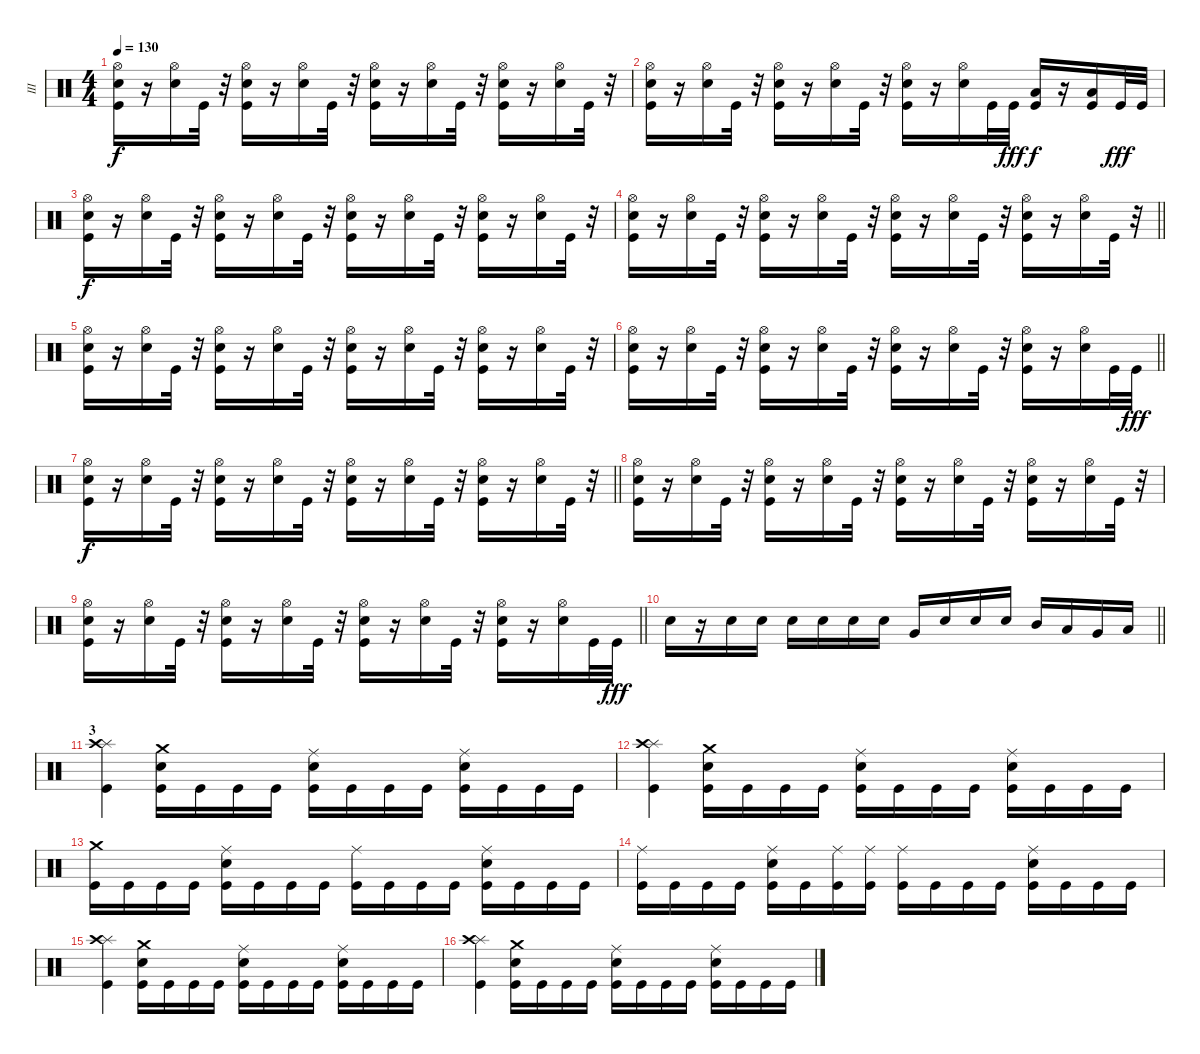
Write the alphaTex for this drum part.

\track ("III" "III") {instrument percussion}
\staff {score}
\articulation defaults
\ts (4 4)
\tempo 130
\clef neutral
\ks c
("Hi-Hat (open)" "Kick (hit)" "Snare (hit) 2").16{dy f} r.16 ("Hi-Hat (open)" "Snare (hit) 2").16 "Kick (hit)".32 r.32 ("Hi-Hat (open)" "Kick (hit)" "Snare (hit) 2").16 r.16 ("Hi-Hat (open)" "Snare (hit) 2").16 "Kick (hit)".32 r.32 ("Hi-Hat (open)" "Kick (hit)" "Snare (hit) 2").16 r.16 ("Hi-Hat (open)" "Snare (hit) 2").16 "Kick (hit)".32 r.32 ("Hi-Hat (open)" "Kick (hit)" "Snare (hit) 2").16 r.16 ("Hi-Hat (open)" "Snare (hit) 2").16 "Kick (hit)".32 r.32 |
("Hi-Hat (open)" "Kick (hit)" "Snare (hit) 2").16 r.16 ("Hi-Hat (open)" "Snare (hit) 2").16 "Kick (hit)".32 r.32 ("Hi-Hat (open)" "Kick (hit)" "Snare (hit) 2").16 r.16 ("Hi-Hat (open)" "Snare (hit) 2").16 "Kick (hit)".32 r.32 ("Hi-Hat (open)" "Kick (hit)" "Snare (hit) 2").16 r.16 ("Hi-Hat (open)" "Snare (hit) 2").16 "Kick (hit)".32 "Kick (hit)".32{dy fff} ("Kick (hit)" "Low Tom (hit)").16{dy f} r.16 ("Kick (hit)" "Low Tom (hit)").16 "Kick (hit)".32{dy fff} "Kick (hit)".32 |
("Hi-Hat (open)" "Kick (hit)" "Snare (hit) 2").16{dy f} r.16 ("Hi-Hat (open)" "Snare (hit) 2").16 "Kick (hit)".32 r.32 ("Hi-Hat (open)" "Kick (hit)" "Snare (hit) 2").16 r.16 ("Hi-Hat (open)" "Snare (hit) 2").16 "Kick (hit)".32 r.32 ("Hi-Hat (open)" "Kick (hit)" "Snare (hit) 2").16 r.16 ("Hi-Hat (open)" "Snare (hit) 2").16 "Kick (hit)".32 r.32 ("Hi-Hat (open)" "Kick (hit)" "Snare (hit) 2").16 r.16 ("Hi-Hat (open)" "Snare (hit) 2").16 "Kick (hit)".32 r.32 |
\barLineRight lightlight
("Hi-Hat (open)" "Kick (hit)" "Snare (hit) 2").16 r.16 ("Hi-Hat (open)" "Snare (hit) 2").16 "Kick (hit)".32 r.32 ("Hi-Hat (open)" "Kick (hit)" "Snare (hit) 2").16 r.16 ("Hi-Hat (open)" "Snare (hit) 2").16 "Kick (hit)".32 r.32 ("Hi-Hat (open)" "Kick (hit)" "Snare (hit) 2").16 r.16 ("Hi-Hat (open)" "Snare (hit) 2").16 "Kick (hit)".32 r.32 ("Hi-Hat (open)" "Kick (hit)" "Snare (hit) 2").16 r.16 ("Hi-Hat (open)" "Snare (hit) 2").16 "Kick (hit)".32 r.32 |
("Hi-Hat (open)" "Kick (hit)" "Snare (hit) 2").16 r.16 ("Hi-Hat (open)" "Snare (hit) 2").16 "Kick (hit)".32 r.32 ("Hi-Hat (open)" "Kick (hit)" "Snare (hit) 2").16 r.16 ("Hi-Hat (open)" "Snare (hit) 2").16 "Kick (hit)".32 r.32 ("Hi-Hat (open)" "Kick (hit)" "Snare (hit) 2").16 r.16 ("Hi-Hat (open)" "Snare (hit) 2").16 "Kick (hit)".32 r.32 ("Hi-Hat (open)" "Kick (hit)" "Snare (hit) 2").16 r.16 ("Hi-Hat (open)" "Snare (hit) 2").16 "Kick (hit)".32 r.32 |
\barLineRight lightlight
("Hi-Hat (open)" "Kick (hit)" "Snare (hit) 2").16 r.16 ("Hi-Hat (open)" "Snare (hit) 2").16 "Kick (hit)".32 r.32 ("Hi-Hat (open)" "Kick (hit)" "Snare (hit) 2").16 r.16 ("Hi-Hat (open)" "Snare (hit) 2").16 "Kick (hit)".32 r.32 ("Hi-Hat (open)" "Kick (hit)" "Snare (hit) 2").16 r.16 ("Hi-Hat (open)" "Snare (hit) 2").16 "Kick (hit)".32 r.32 ("Hi-Hat (open)" "Kick (hit)" "Snare (hit) 2").16 r.16 ("Hi-Hat (open)" "Snare (hit) 2").16 "Kick (hit)".32 "Kick (hit)".32{dy fff} |
\barLineRight lightlight
("Hi-Hat (open)" "Kick (hit)" "Snare (hit) 2").16{dy f} r.16 ("Hi-Hat (open)" "Snare (hit) 2").16 "Kick (hit)".32 r.32 ("Hi-Hat (open)" "Kick (hit)" "Snare (hit) 2").16 r.16 ("Hi-Hat (open)" "Snare (hit) 2").16 "Kick (hit)".32 r.32 ("Hi-Hat (open)" "Kick (hit)" "Snare (hit) 2").16 r.16 ("Hi-Hat (open)" "Snare (hit) 2").16 "Kick (hit)".32 r.32 ("Hi-Hat (open)" "Kick (hit)" "Snare (hit) 2").16 r.16 ("Hi-Hat (open)" "Snare (hit) 2").16 "Kick (hit)".32 r.32 |
("Hi-Hat (open)" "Kick (hit)" "Snare (hit) 2").16 r.16 ("Hi-Hat (open)" "Snare (hit) 2").16 "Kick (hit)".32 r.32 ("Hi-Hat (open)" "Kick (hit)" "Snare (hit) 2").16 r.16 ("Hi-Hat (open)" "Snare (hit) 2").16 "Kick (hit)".32 r.32 ("Hi-Hat (open)" "Kick (hit)" "Snare (hit) 2").16 r.16 ("Hi-Hat (open)" "Snare (hit) 2").16 "Kick (hit)".32 r.32 ("Hi-Hat (open)" "Kick (hit)" "Snare (hit) 2").16 r.16 ("Hi-Hat (open)" "Snare (hit) 2").16 "Kick (hit)".32 r.32 |
\barLineRight lightlight
("Hi-Hat (open)" "Kick (hit)" "Snare (hit) 2").16 r.16 ("Hi-Hat (open)" "Snare (hit) 2").16 "Kick (hit)".32 r.32 ("Hi-Hat (open)" "Kick (hit)" "Snare (hit) 2").16 r.16 ("Hi-Hat (open)" "Snare (hit) 2").16 "Kick (hit)".32 r.32 ("Hi-Hat (open)" "Kick (hit)" "Snare (hit) 2").16 r.16 ("Hi-Hat (open)" "Snare (hit) 2").16 "Kick (hit)".32 r.32 ("Hi-Hat (open)" "Kick (hit)" "Snare (hit) 2").16 r.16 ("Hi-Hat (open)" "Snare (hit) 2").16 "Kick (hit)".32 "Kick (hit)".32{dy fff} |
\barLineRight lightlight "Snare (hit) 2".16
r.16 "Snare (hit) 2".16 "Snare (hit) 2".16 "Snare (hit) 2".16 "Snare (hit) 2".16 "Snare (hit) 2".16 "Snare (hit) 2".16 "Very Low Tom (hit)".16 "Snare (hit) 2".16 "Snare (hit) 2".16 "Snare (hit) 2".16 "Mid Tom (hit)".16 "Low Tom (hit)".16 "Very Low Tom (hit)".16 "Low Floor Tom (hit)".16 |
\section ("" "3")
("Splash (hit)" "Crash high (hit)" "Kick (hit)").4 ("Kick (hit)" "Snare (hit) 2" "Crash medium (hit)").16 "Kick (hit)".16 "Kick (hit)".16 "Kick (hit)".16 ("Snare (hit) 2" "Kick (hit)" "Ride (middle)").16 "Kick (hit)".16 "Kick (hit)".16 "Kick (hit)".16 ("Snare (hit) 2" "Kick (hit)" "Ride (middle)").16 "Kick (hit)".16 "Kick (hit)".16 "Kick (hit)".16 |
("Splash (hit)" "Crash high (hit)" "Kick (hit)").4 ("Kick (hit)" "Snare (hit) 2" "Crash medium (hit)").16 "Kick (hit)".16 "Kick (hit)".16 "Kick (hit)".16 ("Snare (hit) 2" "Kick (hit)" "Ride (middle)").16 "Kick (hit)".16 "Kick (hit)".16 "Kick (hit)".16 ("Snare (hit) 2" "Kick (hit)" "Ride (middle)").16 "Kick (hit)".16 "Kick (hit)".16 "Kick (hit)".16 |
("Kick (hit)" "Crash medium (hit)").16 "Kick (hit)".16 "Kick (hit)".16 "Kick (hit)".16 ("Snare (hit) 2" "Kick (hit)" "Ride (middle)").16 "Kick (hit)".16 "Kick (hit)".16 "Kick (hit)".16 ("Kick (hit)" "Ride (middle)").16 "Kick (hit)".16 "Kick (hit)".16 "Kick (hit)".16 ("Snare (hit) 2" "Kick (hit)" "Ride (middle)").16 "Kick (hit)".16 "Kick (hit)".16 "Kick (hit)".16 |
("Kick (hit)" "Ride (middle)").16 "Kick (hit)".16 "Kick (hit)".16 "Kick (hit)".16 ("Snare (hit) 2" "Kick (hit)" "Ride (middle)").16 "Kick (hit)".16 ("Ride (middle)" "Kick (hit)").16 ("Ride (middle)" "Kick (hit)").16 ("Kick (hit)" "Ride (middle)").16 "Kick (hit)".16 "Kick (hit)".16 "Kick (hit)".16 ("Snare (hit) 2" "Kick (hit)" "Ride (middle)").16 "Kick (hit)".16 "Kick (hit)".16 "Kick (hit)".16 |
("Splash (hit)" "Crash high (hit)" "Kick (hit)").4 ("Kick (hit)" "Snare (hit) 2" "Crash medium (hit)").16 "Kick (hit)".16 "Kick (hit)".16 "Kick (hit)".16 ("Snare (hit) 2" "Kick (hit)" "Ride (middle)").16 "Kick (hit)".16 "Kick (hit)".16 "Kick (hit)".16 ("Snare (hit) 2" "Kick (hit)" "Ride (middle)").16 "Kick (hit)".16 "Kick (hit)".16 "Kick (hit)".16 |
("Splash (hit)" "Crash high (hit)" "Kick (hit)").4 ("Kick (hit)" "Snare (hit) 2" "Crash medium (hit)").16 "Kick (hit)".16 "Kick (hit)".16 "Kick (hit)".16 ("Snare (hit) 2" "Kick (hit)" "Ride (middle)").16 "Kick (hit)".16 "Kick (hit)".16 "Kick (hit)".16 ("Snare (hit) 2" "Kick (hit)" "Ride (middle)").16 "Kick (hit)".16 "Kick (hit)".16 "Kick (hit)".16
